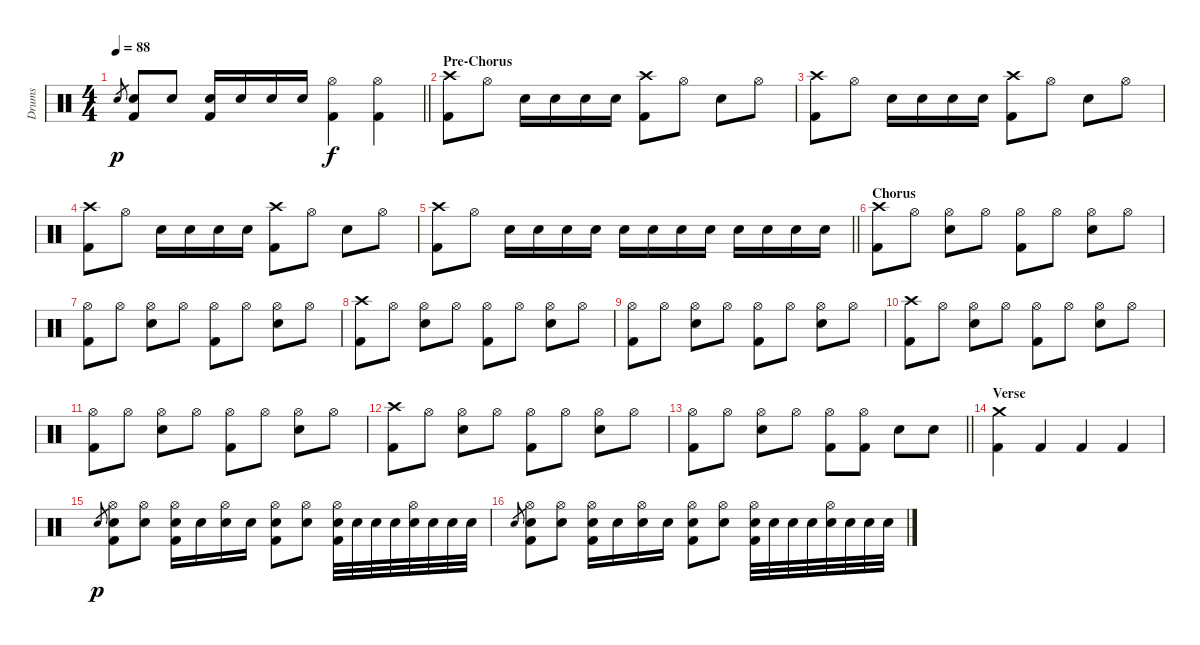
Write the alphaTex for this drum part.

\track ("Drums" "Drums") {instrument percussion}
\staff {score}
\articulation defaults
\ts (4 4)
\tempo 88
\clef neutral
\barLineRight lightlight
\ks c "Snare (hit) 2".8{gr dy p}
("Snare (hit) 2" "Kick (hit) 2").8 "Snare (hit) 2".8 ("Snare (hit) 2" "Kick (hit) 2").16 "Snare (hit) 2".16 "Snare (hit) 2".16 "Snare (hit) 2".16 ("Hi-Hat (open)" "Kick (hit) 2").4{dy f} ("Hi-Hat (open)" "Kick (hit) 2").4 |
\section ("" "Pre-Chorus")
("Crash high (hit)" "Kick (hit) 2").8 "Hi-Hat (open)".8 "Snare (hit) 2".16 "Snare (hit) 2".16 "Snare (hit) 2".16 "Snare (hit) 2".16 ("Crash high (hit)" "Kick (hit) 2").8 "Hi-Hat (open)".8 "Snare (hit) 2".8 "Hi-Hat (open)".8 |
("Crash high (hit)" "Kick (hit) 2").8 "Hi-Hat (open)".8 "Snare (hit) 2".16 "Snare (hit) 2".16 "Snare (hit) 2".16 "Snare (hit) 2".16 ("Crash high (hit)" "Kick (hit) 2").8 "Hi-Hat (open)".8 "Snare (hit) 2".8 "Hi-Hat (open)".8 |
("Crash high (hit)" "Kick (hit) 2").8 "Hi-Hat (open)".8 "Snare (hit) 2".16 "Snare (hit) 2".16 "Snare (hit) 2".16 "Snare (hit) 2".16 ("Crash high (hit)" "Kick (hit) 2").8 "Hi-Hat (open)".8 "Snare (hit) 2".8 "Hi-Hat (open)".8 |
\barLineRight lightlight
("Crash high (hit)" "Kick (hit) 2").8 "Hi-Hat (open)".8 "Snare (hit) 2".16 "Snare (hit) 2".16 "Snare (hit) 2".16 "Snare (hit) 2".16 "Snare (hit) 2".16 "Snare (hit) 2".16 "Snare (hit) 2".16 "Snare (hit) 2".16 "Snare (hit) 2".16 "Snare (hit) 2".16 "Snare (hit) 2".16 "Snare (hit) 2".16 |
\section ("" "Chorus")
("Crash high (hit)" "Kick (hit) 2").8 "Hi-Hat (open)".8 ("Hi-Hat (open)" "Snare (hit) 2").8 "Hi-Hat (open)".8 ("Hi-Hat (open)" "Kick (hit) 2").8 "Hi-Hat (open)".8 ("Hi-Hat (open)" "Snare (hit) 2").8 "Hi-Hat (open)".8 |
("Hi-Hat (open)" "Kick (hit) 2").8 "Hi-Hat (open)".8 ("Hi-Hat (open)" "Snare (hit) 2").8 "Hi-Hat (open)".8 ("Hi-Hat (open)" "Kick (hit) 2").8 "Hi-Hat (open)".8 ("Hi-Hat (open)" "Snare (hit) 2").8 "Hi-Hat (open)".8 |
("Crash high (hit)" "Kick (hit) 2").8 "Hi-Hat (open)".8 ("Hi-Hat (open)" "Snare (hit) 2").8 "Hi-Hat (open)".8 ("Hi-Hat (open)" "Kick (hit) 2").8 "Hi-Hat (open)".8 ("Hi-Hat (open)" "Snare (hit) 2").8 "Hi-Hat (open)".8 |
("Hi-Hat (open)" "Kick (hit) 2").8 "Hi-Hat (open)".8 ("Hi-Hat (open)" "Snare (hit) 2").8 "Hi-Hat (open)".8 ("Hi-Hat (open)" "Kick (hit) 2").8 "Hi-Hat (open)".8 ("Hi-Hat (open)" "Snare (hit) 2").8 "Hi-Hat (open)".8 |
("Crash high (hit)" "Kick (hit) 2").8 "Hi-Hat (open)".8 ("Hi-Hat (open)" "Snare (hit) 2").8 "Hi-Hat (open)".8 ("Hi-Hat (open)" "Kick (hit) 2").8 "Hi-Hat (open)".8 ("Hi-Hat (open)" "Snare (hit) 2").8 "Hi-Hat (open)".8 |
("Hi-Hat (open)" "Kick (hit) 2").8 "Hi-Hat (open)".8 ("Hi-Hat (open)" "Snare (hit) 2").8 "Hi-Hat (open)".8 ("Hi-Hat (open)" "Kick (hit) 2").8 "Hi-Hat (open)".8 ("Hi-Hat (open)" "Snare (hit) 2").8 "Hi-Hat (open)".8 |
("Crash high (hit)" "Kick (hit) 2").8 "Hi-Hat (open)".8 ("Hi-Hat (open)" "Snare (hit) 2").8 "Hi-Hat (open)".8 ("Hi-Hat (open)" "Kick (hit) 2").8 "Hi-Hat (open)".8 ("Hi-Hat (open)" "Snare (hit) 2").8 "Hi-Hat (open)".8 |
\barLineRight lightlight
("Hi-Hat (open)" "Kick (hit) 2").8 "Hi-Hat (open)".8 ("Hi-Hat (open)" "Snare (hit) 2").8 "Hi-Hat (open)".8 ("Hi-Hat (open)" "Kick (hit) 2").8 ("Hi-Hat (open)" "Kick (hit) 2").8 "Snare (hit) 2".8 "Snare (hit) 2".8 |
\section ("" "Verse")
("Crash medium (hit)" "Kick (hit) 2").4 "Kick (hit) 2".4 "Kick (hit) 2".4 "Kick (hit) 2".4 |
"Snare (hit) 2".8{gr dy p} ("Hi-Hat (open)" "Snare (hit) 2" "Kick (hit) 2").8 ("Hi-Hat (open)" "Snare (hit) 2").8 ("Hi-Hat (open)" "Snare (hit) 2" "Kick (hit) 2").16 "Snare (hit) 2".16 ("Hi-Hat (open)" "Snare (hit) 2").16 "Snare (hit) 2".16 ("Hi-Hat (open)" "Snare (hit) 2" "Kick (hit) 2").8 ("Hi-Hat (open)" "Snare (hit) 2").8 ("Hi-Hat (open)" "Snare (hit) 2" "Kick (hit) 2").32 "Snare (hit) 2".32 "Snare (hit) 2".32 "Snare (hit) 2".32 ("Hi-Hat (open)" "Snare (hit) 2").32 "Snare (hit) 2".32 "Snare (hit) 2".32 "Snare (hit) 2".32 |
"Snare (hit) 2".8{gr} ("Hi-Hat (open)" "Snare (hit) 2" "Kick (hit) 2").8 ("Hi-Hat (open)" "Snare (hit) 2").8 ("Hi-Hat (open)" "Snare (hit) 2" "Kick (hit) 2").16 "Snare (hit) 2".16 ("Hi-Hat (open)" "Snare (hit) 2").16 "Snare (hit) 2".16 ("Hi-Hat (open)" "Snare (hit) 2" "Kick (hit) 2").8 ("Hi-Hat (open)" "Snare (hit) 2").8 ("Hi-Hat (open)" "Snare (hit) 2" "Kick (hit) 2").32 "Snare (hit) 2".32 "Snare (hit) 2".32 "Snare (hit) 2".32 ("Hi-Hat (open)" "Snare (hit) 2").32 "Snare (hit) 2".32 "Snare (hit) 2".32 "Snare (hit) 2".32
